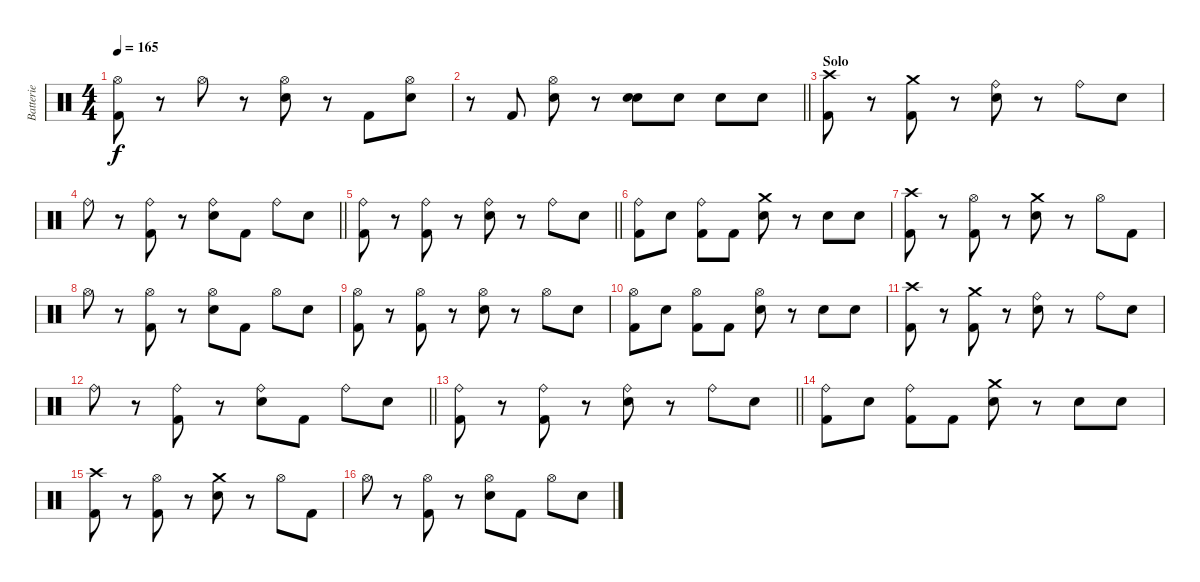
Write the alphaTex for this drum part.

\track ("Batterie" "Batterie") {instrument percussion}
\staff {score}
\articulation defaults
\ts (4 4)
\tempo 165
\clef neutral
\ks c
("Hi-Hat (open)" "Kick (hit) 2").8{dy f} r.8 "Hi-Hat (open)".8 r.8 ("Hi-Hat (open)" "Electric Snare (hit)").8 r.8 "Kick (hit) 2".8 ("Hi-Hat (open)" "Electric Snare (hit)").8 |
\barLineRight lightlight
r.8 "Kick (hit) 2".8 ("Hi-Hat (open)" "Electric Snare (hit)").8 r.8 ("Electric Snare (hit)" "Electric Snare (hit)").8{bu 120} "Electric Snare (hit)".8 "Electric Snare (hit)".8 "Electric Snare (hit)".8 |
\section ("" "Solo")
("Crash high (hit)" "Kick (hit) 2").8 r.8 ("Crash medium (hit)" "Kick (hit) 2").8 r.8 ("Ride (bell)" "Electric Snare (hit)").8 r.8 "Ride (bell)".8 "Electric Snare (hit)".8 |
\barLineRight lightlight "Ride (bell)".8
r.8 ("Ride (bell)" "Kick (hit) 2").8 r.8 ("Ride (bell)" "Electric Snare (hit)").8 "Kick (hit) 2".8 "Ride (bell)".8 "Electric Snare (hit)".8 |
\barLineRight lightlight
("Ride (bell)" "Kick (hit) 2").8 r.8 ("Ride (bell)" "Kick (hit) 2").8 r.8 ("Ride (bell)" "Electric Snare (hit)").8 r.8 "Ride (bell)".8 "Electric Snare (hit)".8 |
("Ride (bell)" "Kick (hit) 2").8 "Electric Snare (hit)".8 ("Ride (bell)" "Kick (hit) 2").8 "Kick (hit) 2".8 ("Crash medium (hit)" "Electric Snare (hit)").8 r.8 "Electric Snare (hit)".8 "Electric Snare (hit)".8 |
("Crash high (hit)" "Kick (hit) 2").8 r.8 ("Hi-Hat (open)" "Kick (hit) 2").8 r.8 ("Crash medium (hit)" "Electric Snare (hit)").8 r.8 "Hi-Hat (open)".8 "Kick (hit) 2".8 |
"Hi-Hat (open)".8 r.8 ("Hi-Hat (open)" "Kick (hit) 2").8 r.8 ("Hi-Hat (open)" "Electric Snare (hit)").8 "Kick (hit) 2".8 "Hi-Hat (open)".8 "Electric Snare (hit)".8 |
("Hi-Hat (open)" "Kick (hit) 2").8 r.8 ("Hi-Hat (open)" "Kick (hit) 2").8 r.8 ("Hi-Hat (open)" "Electric Snare (hit)").8 r.8 "Hi-Hat (open)".8 "Electric Snare (hit)".8 |
("Hi-Hat (open)" "Kick (hit) 2").8 "Electric Snare (hit)".8 ("Hi-Hat (open)" "Kick (hit) 2").8 "Kick (hit) 2".8 ("Hi-Hat (open)" "Electric Snare (hit)").8 r.8 "Electric Snare (hit)".8 "Electric Snare (hit)".8 |
("Crash high (hit)" "Kick (hit) 2").8 r.8 ("Crash medium (hit)" "Kick (hit) 2").8 r.8 ("Ride (bell)" "Electric Snare (hit)").8 r.8 "Ride (bell)".8 "Electric Snare (hit)".8 |
\barLineRight lightlight "Ride (bell)".8
r.8 ("Ride (bell)" "Kick (hit) 2").8 r.8 ("Ride (bell)" "Electric Snare (hit)").8 "Kick (hit) 2".8 "Ride (bell)".8 "Electric Snare (hit)".8 |
\barLineRight lightlight
("Ride (bell)" "Kick (hit) 2").8 r.8 ("Ride (bell)" "Kick (hit) 2").8 r.8 ("Ride (bell)" "Electric Snare (hit)").8 r.8 "Ride (bell)".8 "Electric Snare (hit)".8 |
("Ride (bell)" "Kick (hit) 2").8 "Electric Snare (hit)".8 ("Ride (bell)" "Kick (hit) 2").8 "Kick (hit) 2".8 ("Crash medium (hit)" "Electric Snare (hit)").8 r.8 "Electric Snare (hit)".8 "Electric Snare (hit)".8 |
("Crash high (hit)" "Kick (hit) 2").8 r.8 ("Hi-Hat (open)" "Kick (hit) 2").8 r.8 ("Crash medium (hit)" "Electric Snare (hit)").8 r.8 "Hi-Hat (open)".8 "Kick (hit) 2".8 |
"Hi-Hat (open)".8 r.8 ("Hi-Hat (open)" "Kick (hit) 2").8 r.8 ("Hi-Hat (open)" "Electric Snare (hit)").8 "Kick (hit) 2".8 "Hi-Hat (open)".8 "Electric Snare (hit)".8
